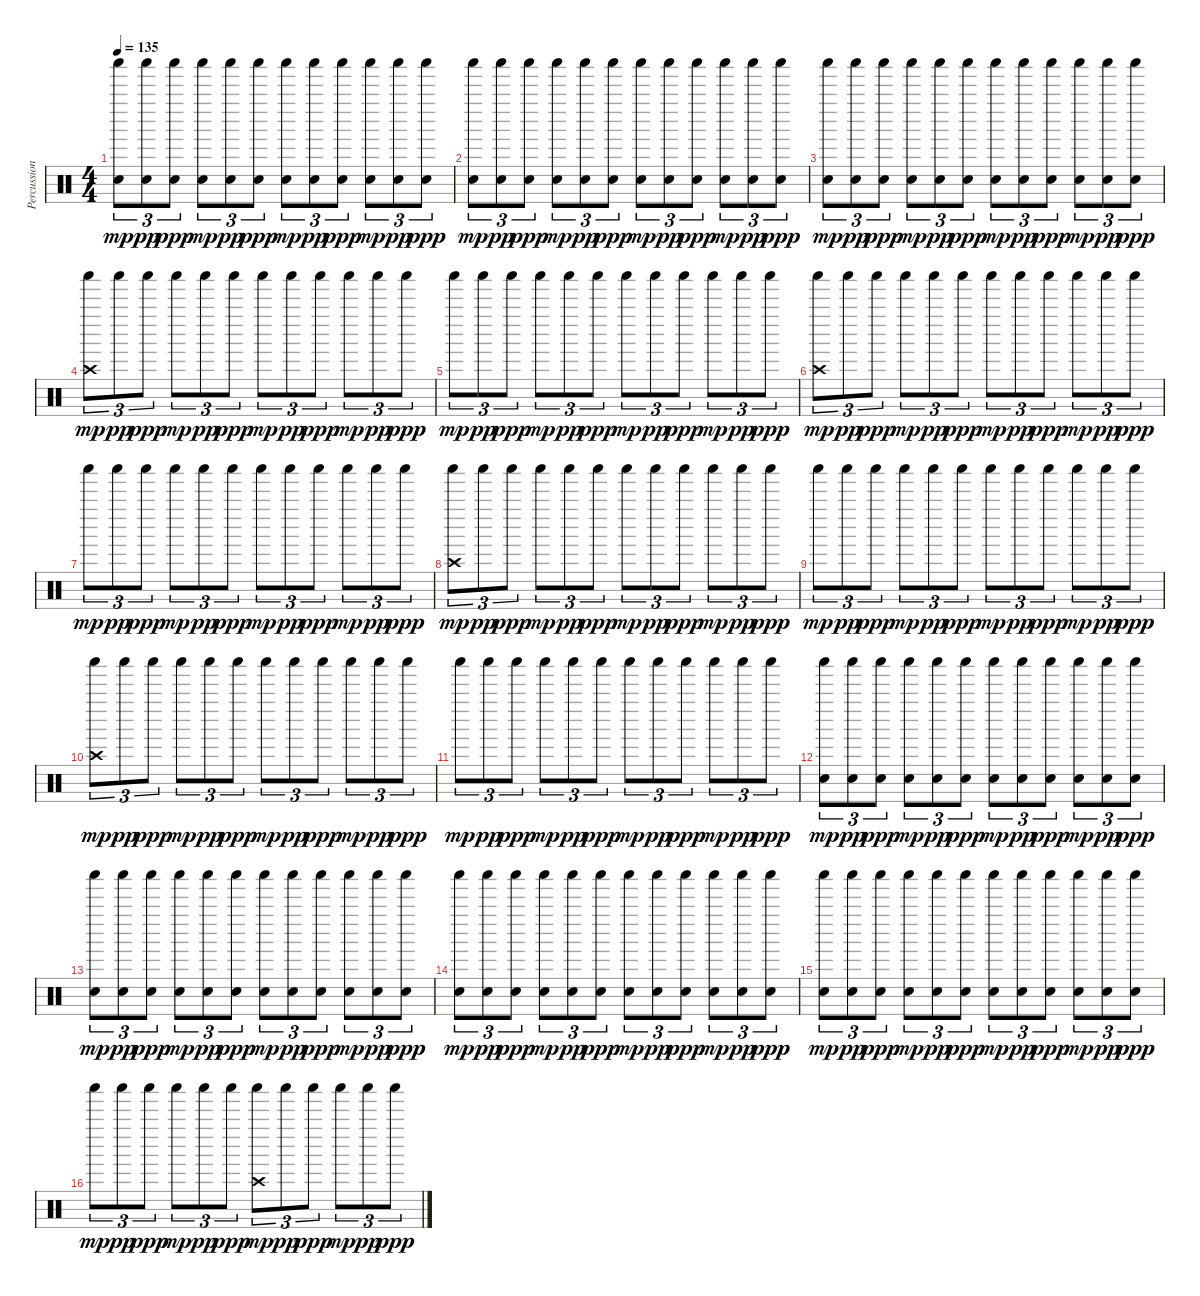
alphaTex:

\track ("Percussion" "Percussion") {instrument percussion}
\staff {score}
\articulation defaults
\ts (4 4)
\tempo 135
\clef neutral
\ks c
("Hand Clap (hit)" "Shaker (hit)").8{tu (3 2) dy mp} ("Hand Clap (hit)" "Shaker (hit)").8{tu (3 2) dy pp} ("Hand Clap (hit)" "Shaker (hit)").8{tu (3 2) dy ppp} ("Hand Clap (hit)" "Shaker (hit)").8{tu (3 2) dy mp} ("Hand Clap (hit)" "Shaker (hit)").8{tu (3 2) dy pp} ("Hand Clap (hit)" "Shaker (hit)").8{tu (3 2) dy ppp} ("Hand Clap (hit)" "Shaker (hit)").8{tu (3 2) dy mp} ("Hand Clap (hit)" "Shaker (hit)").8{tu (3 2) dy pp} ("Hand Clap (hit)" "Shaker (hit)").8{tu (3 2) dy ppp} ("Hand Clap (hit)" "Shaker (hit)").8{tu (3 2) dy mp} ("Hand Clap (hit)" "Shaker (hit)").8{tu (3 2) dy pp} ("Hand Clap (hit)" "Shaker (hit)").8{tu (3 2) dy ppp} |
("Hand Clap (hit)" "Shaker (hit)").8{tu (3 2) dy mp} ("Hand Clap (hit)" "Shaker (hit)").8{tu (3 2) dy pp} ("Hand Clap (hit)" "Shaker (hit)").8{tu (3 2) dy ppp} ("Hand Clap (hit)" "Shaker (hit)").8{tu (3 2) dy mp} ("Hand Clap (hit)" "Shaker (hit)").8{tu (3 2) dy pp} ("Hand Clap (hit)" "Shaker (hit)").8{tu (3 2) dy ppp} ("Hand Clap (hit)" "Shaker (hit)").8{tu (3 2) dy mp} ("Hand Clap (hit)" "Shaker (hit)").8{tu (3 2) dy pp} ("Hand Clap (hit)" "Shaker (hit)").8{tu (3 2) dy ppp} ("Hand Clap (hit)" "Shaker (hit)").8{tu (3 2) dy mp} ("Hand Clap (hit)" "Shaker (hit)").8{tu (3 2) dy pp} ("Hand Clap (hit)" "Shaker (hit)").8{tu (3 2) dy ppp} |
("Hand Clap (hit)" "Shaker (hit)").8{tu (3 2) dy mp} ("Hand Clap (hit)" "Shaker (hit)").8{tu (3 2) dy pp} ("Hand Clap (hit)" "Shaker (hit)").8{tu (3 2) dy ppp} ("Hand Clap (hit)" "Shaker (hit)").8{tu (3 2) dy mp} ("Hand Clap (hit)" "Shaker (hit)").8{tu (3 2) dy pp} ("Hand Clap (hit)" "Shaker (hit)").8{tu (3 2) dy ppp} ("Hand Clap (hit)" "Shaker (hit)").8{tu (3 2) dy mp} ("Hand Clap (hit)" "Shaker (hit)").8{tu (3 2) dy pp} ("Hand Clap (hit)" "Shaker (hit)").8{tu (3 2) dy ppp} ("Hand Clap (hit)" "Shaker (hit)").8{tu (3 2) dy mp} ("Hand Clap (hit)" "Shaker (hit)").8{tu (3 2) dy pp} ("Hand Clap (hit)" "Shaker (hit)").8{tu (3 2) dy ppp} |
("Shaker (hit)" "Crash high (hit)").8{tu (3 2) dy mp} "Shaker (hit)".8{tu (3 2) dy pp} "Shaker (hit)".8{tu (3 2) dy ppp} "Shaker (hit)".8{tu (3 2) dy mp} "Shaker (hit)".8{tu (3 2) dy pp} "Shaker (hit)".8{tu (3 2) dy ppp} "Shaker (hit)".8{tu (3 2) dy mp} "Shaker (hit)".8{tu (3 2) dy pp} "Shaker (hit)".8{tu (3 2) dy ppp} "Shaker (hit)".8{tu (3 2) dy mp} "Shaker (hit)".8{tu (3 2) dy pp} "Shaker (hit)".8{tu (3 2) dy ppp} |
"Shaker (hit)".8{tu (3 2) dy mp} "Shaker (hit)".8{tu (3 2) dy pp} "Shaker (hit)".8{tu (3 2) dy ppp} "Shaker (hit)".8{tu (3 2) dy mp} "Shaker (hit)".8{tu (3 2) dy pp} "Shaker (hit)".8{tu (3 2) dy ppp} "Shaker (hit)".8{tu (3 2) dy mp} "Shaker (hit)".8{tu (3 2) dy pp} "Shaker (hit)".8{tu (3 2) dy ppp} "Shaker (hit)".8{tu (3 2) dy mp} "Shaker (hit)".8{tu (3 2) dy pp} "Shaker (hit)".8{tu (3 2) dy ppp} |
("Shaker (hit)" "Crash high (hit)").8{tu (3 2) dy mp} "Shaker (hit)".8{tu (3 2) dy pp} "Shaker (hit)".8{tu (3 2) dy ppp} "Shaker (hit)".8{tu (3 2) dy mp} "Shaker (hit)".8{tu (3 2) dy pp} "Shaker (hit)".8{tu (3 2) dy ppp} "Shaker (hit)".8{tu (3 2) dy mp} "Shaker (hit)".8{tu (3 2) dy pp} "Shaker (hit)".8{tu (3 2) dy ppp} "Shaker (hit)".8{tu (3 2) dy mp} "Shaker (hit)".8{tu (3 2) dy pp} "Shaker (hit)".8{tu (3 2) dy ppp} |
"Shaker (hit)".8{tu (3 2) dy mp} "Shaker (hit)".8{tu (3 2) dy pp} "Shaker (hit)".8{tu (3 2) dy ppp} "Shaker (hit)".8{tu (3 2) dy mp} "Shaker (hit)".8{tu (3 2) dy pp} "Shaker (hit)".8{tu (3 2) dy ppp} "Shaker (hit)".8{tu (3 2) dy mp} "Shaker (hit)".8{tu (3 2) dy pp} "Shaker (hit)".8{tu (3 2) dy ppp} "Shaker (hit)".8{tu (3 2) dy mp} "Shaker (hit)".8{tu (3 2) dy pp} "Shaker (hit)".8{tu (3 2) dy ppp} |
("Shaker (hit)" "Crash high (hit)").8{tu (3 2) dy mp} "Shaker (hit)".8{tu (3 2) dy pp} "Shaker (hit)".8{tu (3 2) dy ppp} "Shaker (hit)".8{tu (3 2) dy mp} "Shaker (hit)".8{tu (3 2) dy pp} "Shaker (hit)".8{tu (3 2) dy ppp} "Shaker (hit)".8{tu (3 2) dy mp} "Shaker (hit)".8{tu (3 2) dy pp} "Shaker (hit)".8{tu (3 2) dy ppp} "Shaker (hit)".8{tu (3 2) dy mp} "Shaker (hit)".8{tu (3 2) dy pp} "Shaker (hit)".8{tu (3 2) dy ppp} |
"Shaker (hit)".8{tu (3 2) dy mp} "Shaker (hit)".8{tu (3 2) dy pp} "Shaker (hit)".8{tu (3 2) dy ppp} "Shaker (hit)".8{tu (3 2) dy mp} "Shaker (hit)".8{tu (3 2) dy pp} "Shaker (hit)".8{tu (3 2) dy ppp} "Shaker (hit)".8{tu (3 2) dy mp} "Shaker (hit)".8{tu (3 2) dy pp} "Shaker (hit)".8{tu (3 2) dy ppp} "Shaker (hit)".8{tu (3 2) dy mp} "Shaker (hit)".8{tu (3 2) dy pp} "Shaker (hit)".8{tu (3 2) dy ppp} |
("Shaker (hit)" "Crash high (hit)").8{tu (3 2) dy mp} "Shaker (hit)".8{tu (3 2) dy pp} "Shaker (hit)".8{tu (3 2) dy ppp} "Shaker (hit)".8{tu (3 2) dy mp} "Shaker (hit)".8{tu (3 2) dy pp} "Shaker (hit)".8{tu (3 2) dy ppp} "Shaker (hit)".8{tu (3 2) dy mp} "Shaker (hit)".8{tu (3 2) dy pp} "Shaker (hit)".8{tu (3 2) dy ppp} "Shaker (hit)".8{tu (3 2) dy mp} "Shaker (hit)".8{tu (3 2) dy pp} "Shaker (hit)".8{tu (3 2) dy ppp} |
"Shaker (hit)".8{tu (3 2) dy mp} "Shaker (hit)".8{tu (3 2) dy pp} "Shaker (hit)".8{tu (3 2) dy ppp} "Shaker (hit)".8{tu (3 2) dy mp} "Shaker (hit)".8{tu (3 2) dy pp} "Shaker (hit)".8{tu (3 2) dy ppp} "Shaker (hit)".8{tu (3 2) dy mp} "Shaker (hit)".8{tu (3 2) dy pp} "Shaker (hit)".8{tu (3 2) dy ppp} "Shaker (hit)".8{tu (3 2) dy mp} "Shaker (hit)".8{tu (3 2) dy pp} "Shaker (hit)".8{tu (3 2) dy ppp} |
("Hand Clap (hit)" "Shaker (hit)").8{tu (3 2) dy mp} ("Hand Clap (hit)" "Shaker (hit)").8{tu (3 2) dy pp} ("Hand Clap (hit)" "Shaker (hit)").8{tu (3 2) dy ppp} ("Hand Clap (hit)" "Shaker (hit)").8{tu (3 2) dy mp} ("Hand Clap (hit)" "Shaker (hit)").8{tu (3 2) dy pp} ("Hand Clap (hit)" "Shaker (hit)").8{tu (3 2) dy ppp} ("Hand Clap (hit)" "Shaker (hit)").8{tu (3 2) dy mp} ("Hand Clap (hit)" "Shaker (hit)").8{tu (3 2) dy pp} ("Hand Clap (hit)" "Shaker (hit)").8{tu (3 2) dy ppp} ("Hand Clap (hit)" "Shaker (hit)").8{tu (3 2) dy mp} ("Hand Clap (hit)" "Shaker (hit)").8{tu (3 2) dy pp} ("Hand Clap (hit)" "Shaker (hit)").8{tu (3 2) dy ppp} |
("Hand Clap (hit)" "Shaker (hit)").8{tu (3 2) dy mp} ("Hand Clap (hit)" "Shaker (hit)").8{tu (3 2) dy pp} ("Hand Clap (hit)" "Shaker (hit)").8{tu (3 2) dy ppp} ("Hand Clap (hit)" "Shaker (hit)").8{tu (3 2) dy mp} ("Hand Clap (hit)" "Shaker (hit)").8{tu (3 2) dy pp} ("Hand Clap (hit)" "Shaker (hit)").8{tu (3 2) dy ppp} ("Hand Clap (hit)" "Shaker (hit)").8{tu (3 2) dy mp} ("Hand Clap (hit)" "Shaker (hit)").8{tu (3 2) dy pp} ("Hand Clap (hit)" "Shaker (hit)").8{tu (3 2) dy ppp} ("Hand Clap (hit)" "Shaker (hit)").8{tu (3 2) dy mp} ("Hand Clap (hit)" "Shaker (hit)").8{tu (3 2) dy pp} ("Hand Clap (hit)" "Shaker (hit)").8{tu (3 2) dy ppp} |
("Hand Clap (hit)" "Shaker (hit)").8{tu (3 2) dy mp} ("Hand Clap (hit)" "Shaker (hit)").8{tu (3 2) dy pp} ("Hand Clap (hit)" "Shaker (hit)").8{tu (3 2) dy ppp} ("Hand Clap (hit)" "Shaker (hit)").8{tu (3 2) dy mp} ("Hand Clap (hit)" "Shaker (hit)").8{tu (3 2) dy pp} ("Hand Clap (hit)" "Shaker (hit)").8{tu (3 2) dy ppp} ("Hand Clap (hit)" "Shaker (hit)").8{tu (3 2) dy mp} ("Hand Clap (hit)" "Shaker (hit)").8{tu (3 2) dy pp} ("Hand Clap (hit)" "Shaker (hit)").8{tu (3 2) dy ppp} ("Hand Clap (hit)" "Shaker (hit)").8{tu (3 2) dy mp} ("Hand Clap (hit)" "Shaker (hit)").8{tu (3 2) dy pp} ("Hand Clap (hit)" "Shaker (hit)").8{tu (3 2) dy ppp} |
("Hand Clap (hit)" "Shaker (hit)").8{tu (3 2) dy mp} ("Hand Clap (hit)" "Shaker (hit)").8{tu (3 2) dy pp} ("Hand Clap (hit)" "Shaker (hit)").8{tu (3 2) dy ppp} ("Hand Clap (hit)" "Shaker (hit)").8{tu (3 2) dy mp} ("Hand Clap (hit)" "Shaker (hit)").8{tu (3 2) dy pp} ("Hand Clap (hit)" "Shaker (hit)").8{tu (3 2) dy ppp} ("Hand Clap (hit)" "Shaker (hit)").8{tu (3 2) dy mp} ("Hand Clap (hit)" "Shaker (hit)").8{tu (3 2) dy pp} ("Hand Clap (hit)" "Shaker (hit)").8{tu (3 2) dy ppp} ("Hand Clap (hit)" "Shaker (hit)").8{tu (3 2) dy mp} ("Hand Clap (hit)" "Shaker (hit)").8{tu (3 2) dy pp} ("Hand Clap (hit)" "Shaker (hit)").8{tu (3 2) dy ppp} |
"Shaker (hit)".8{tu (3 2) dy mp} "Shaker (hit)".8{tu (3 2) dy pp} "Shaker (hit)".8{tu (3 2) dy ppp} "Shaker (hit)".8{tu (3 2) dy mp} "Shaker (hit)".8{tu (3 2) dy pp} "Shaker (hit)".8{tu (3 2) dy ppp} ("Shaker (hit)" "Crash high (hit)").8{tu (3 2) dy mp} "Shaker (hit)".8{tu (3 2) dy pp} "Shaker (hit)".8{tu (3 2) dy ppp} "Shaker (hit)".8{tu (3 2) dy mp} "Shaker (hit)".8{tu (3 2) dy pp} "Shaker (hit)".8{tu (3 2) dy ppp}
